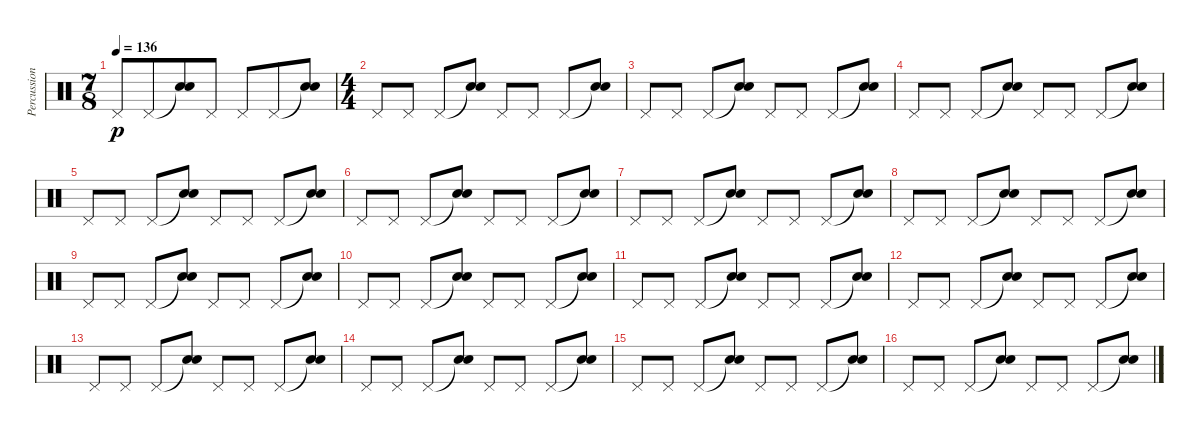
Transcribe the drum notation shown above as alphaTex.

\track ("Percussions" "Percussion") {instrument percussion}
\staff {score}
\articulation defaults
\ts (7 8)
\tempo 136
\clef neutral
\ks c "Pedal Hi-Hat (hit)".8{dy p} "Pedal Hi-Hat (hit)".8
("Snare (hit)"{t} "Snare (hit) 2").8 "Pedal Hi-Hat (hit)".8 "Pedal Hi-Hat (hit)".8 "Pedal Hi-Hat (hit)".8 ("Snare (hit)"{t} "Snare (hit) 2").8 |
\ts (4 4)
"Pedal Hi-Hat (hit)".8 "Pedal Hi-Hat (hit)".8 "Pedal Hi-Hat (hit)".8 ("Snare (hit)"{t} "Snare (hit) 2").8 "Pedal Hi-Hat (hit)".8 "Pedal Hi-Hat (hit)".8 "Pedal Hi-Hat (hit)".8 ("Snare (hit)"{t} "Snare (hit) 2").8 |
"Pedal Hi-Hat (hit)".8 "Pedal Hi-Hat (hit)".8 "Pedal Hi-Hat (hit)".8 ("Snare (hit)"{t} "Snare (hit) 2").8 "Pedal Hi-Hat (hit)".8 "Pedal Hi-Hat (hit)".8 "Pedal Hi-Hat (hit)".8 ("Snare (hit)"{t} "Snare (hit) 2").8 |
"Pedal Hi-Hat (hit)".8 "Pedal Hi-Hat (hit)".8 "Pedal Hi-Hat (hit)".8 ("Snare (hit)"{t} "Snare (hit) 2").8 "Pedal Hi-Hat (hit)".8 "Pedal Hi-Hat (hit)".8 "Pedal Hi-Hat (hit)".8 ("Snare (hit)"{t} "Snare (hit) 2").8 |
"Pedal Hi-Hat (hit)".8 "Pedal Hi-Hat (hit)".8 "Pedal Hi-Hat (hit)".8 ("Snare (hit)"{t} "Snare (hit) 2").8 "Pedal Hi-Hat (hit)".8 "Pedal Hi-Hat (hit)".8 "Pedal Hi-Hat (hit)".8 ("Snare (hit)"{t} "Snare (hit) 2").8 |
"Pedal Hi-Hat (hit)".8 "Pedal Hi-Hat (hit)".8 "Pedal Hi-Hat (hit)".8 ("Snare (hit)"{t} "Snare (hit) 2").8 "Pedal Hi-Hat (hit)".8 "Pedal Hi-Hat (hit)".8 "Pedal Hi-Hat (hit)".8 ("Snare (hit)"{t} "Snare (hit) 2").8 |
"Pedal Hi-Hat (hit)".8 "Pedal Hi-Hat (hit)".8 "Pedal Hi-Hat (hit)".8 ("Snare (hit)"{t} "Snare (hit) 2").8 "Pedal Hi-Hat (hit)".8 "Pedal Hi-Hat (hit)".8 "Pedal Hi-Hat (hit)".8 ("Snare (hit)"{t} "Snare (hit) 2").8 |
"Pedal Hi-Hat (hit)".8 "Pedal Hi-Hat (hit)".8 "Pedal Hi-Hat (hit)".8 ("Snare (hit)"{t} "Snare (hit) 2").8 "Pedal Hi-Hat (hit)".8 "Pedal Hi-Hat (hit)".8 "Pedal Hi-Hat (hit)".8 ("Snare (hit)"{t} "Snare (hit) 2").8 |
"Pedal Hi-Hat (hit)".8 "Pedal Hi-Hat (hit)".8 "Pedal Hi-Hat (hit)".8 ("Snare (hit)"{t} "Snare (hit) 2").8 "Pedal Hi-Hat (hit)".8 "Pedal Hi-Hat (hit)".8 "Pedal Hi-Hat (hit)".8 ("Snare (hit)"{t} "Snare (hit) 2").8 |
"Pedal Hi-Hat (hit)".8 "Pedal Hi-Hat (hit)".8 "Pedal Hi-Hat (hit)".8 ("Snare (hit)"{t} "Snare (hit) 2").8 "Pedal Hi-Hat (hit)".8 "Pedal Hi-Hat (hit)".8 "Pedal Hi-Hat (hit)".8 ("Snare (hit)"{t} "Snare (hit) 2").8 |
"Pedal Hi-Hat (hit)".8 "Pedal Hi-Hat (hit)".8 "Pedal Hi-Hat (hit)".8 ("Snare (hit)"{t} "Snare (hit) 2").8 "Pedal Hi-Hat (hit)".8 "Pedal Hi-Hat (hit)".8 "Pedal Hi-Hat (hit)".8 ("Snare (hit)"{t} "Snare (hit) 2").8 |
"Pedal Hi-Hat (hit)".8 "Pedal Hi-Hat (hit)".8 "Pedal Hi-Hat (hit)".8 ("Snare (hit)"{t} "Snare (hit) 2").8 "Pedal Hi-Hat (hit)".8 "Pedal Hi-Hat (hit)".8 "Pedal Hi-Hat (hit)".8 ("Snare (hit)"{t} "Snare (hit) 2").8 |
"Pedal Hi-Hat (hit)".8 "Pedal Hi-Hat (hit)".8 "Pedal Hi-Hat (hit)".8 ("Snare (hit)"{t} "Snare (hit) 2").8 "Pedal Hi-Hat (hit)".8 "Pedal Hi-Hat (hit)".8 "Pedal Hi-Hat (hit)".8 ("Snare (hit)"{t} "Snare (hit) 2").8 |
"Pedal Hi-Hat (hit)".8 "Pedal Hi-Hat (hit)".8 "Pedal Hi-Hat (hit)".8 ("Snare (hit)"{t} "Snare (hit) 2").8 "Pedal Hi-Hat (hit)".8 "Pedal Hi-Hat (hit)".8 "Pedal Hi-Hat (hit)".8 ("Snare (hit)"{t} "Snare (hit) 2").8 |
"Pedal Hi-Hat (hit)".8 "Pedal Hi-Hat (hit)".8 "Pedal Hi-Hat (hit)".8 ("Snare (hit)"{t} "Snare (hit) 2").8 "Pedal Hi-Hat (hit)".8 "Pedal Hi-Hat (hit)".8 "Pedal Hi-Hat (hit)".8 ("Snare (hit)"{t} "Snare (hit) 2").8 |
"Pedal Hi-Hat (hit)".8 "Pedal Hi-Hat (hit)".8 "Pedal Hi-Hat (hit)".8 ("Snare (hit)"{t} "Snare (hit) 2").8 "Pedal Hi-Hat (hit)".8 "Pedal Hi-Hat (hit)".8 "Pedal Hi-Hat (hit)".8 ("Snare (hit)"{t} "Snare (hit) 2").8
